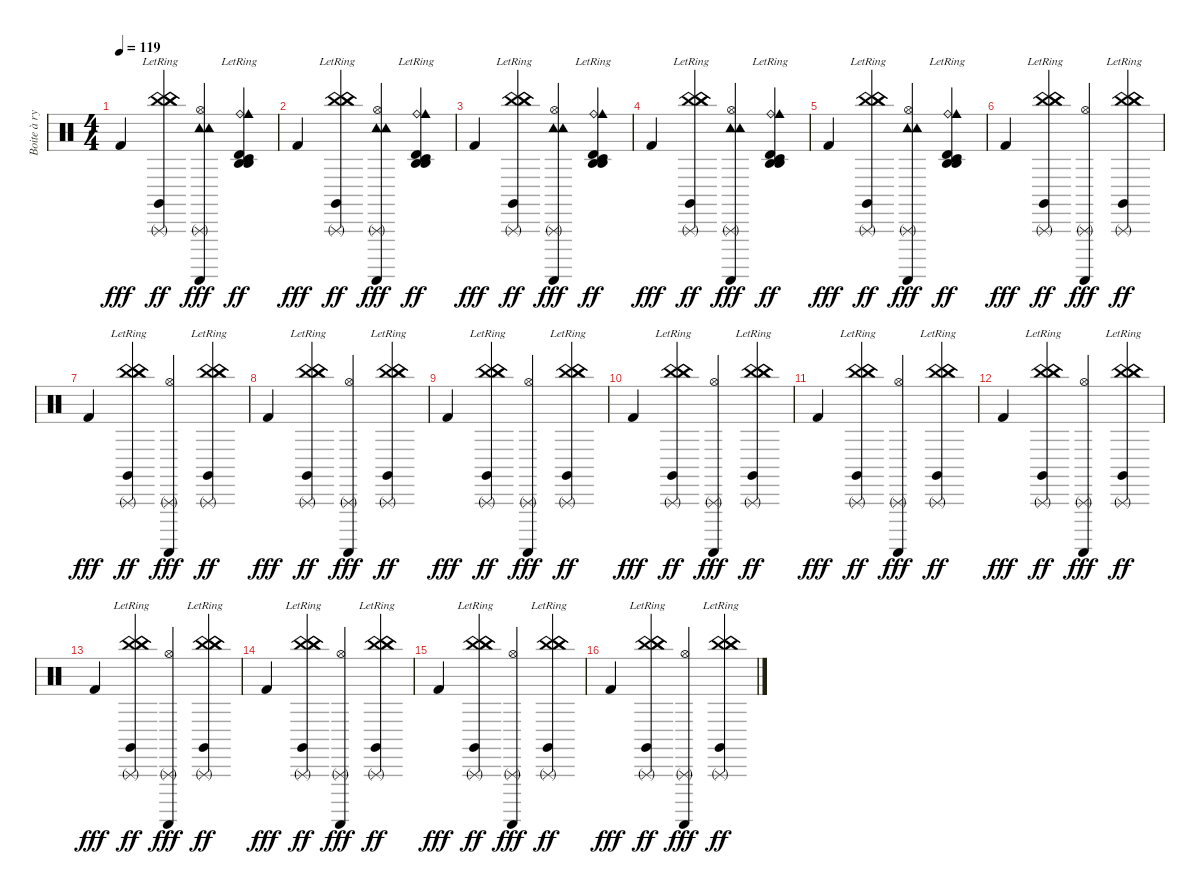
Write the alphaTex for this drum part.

\track ("Boite à rythme" "Boite à ry") {instrument percussion}
\staff {score}
\articulation defaults
\ts (4 4)
\tempo 119
\clef neutral
\ks c "Kick (hit) 2".4{dy fff}
("China (hit)" "China (hit)" "Triangle (rnute)" "Claves (hit)" "China (hit)"{lr}).4{dy ff} ("Hi-Hat (open)" "Tambourine (hit)" "Triangle (rnute)" "Guiro (scrap-return)" "Tambourine (hit)").4{dy fff} ("Ride (bell)" "Agogo high (hit)"{lr} "Timbale high (hit)" "Agogo high (hit)" "Cowbell medium (hit)" "Timbale low (hit)").4{dy ff} |
"Kick (hit) 2".4{dy fff} ("China (hit)" "China (hit)" "Triangle (rnute)" "Claves (hit)" "China (hit)"{lr}).4{dy ff} ("Hi-Hat (open)" "Tambourine (hit)" "Triangle (rnute)" "Guiro (scrap-return)" "Tambourine (hit)").4{dy fff} ("Ride (bell)" "Agogo high (hit)"{lr} "Timbale high (hit)" "Agogo high (hit)" "Cowbell medium (hit)" "Timbale low (hit)").4{dy ff} |
"Kick (hit) 2".4{dy fff} ("China (hit)" "China (hit)" "Triangle (rnute)" "Claves (hit)" "China (hit)"{lr}).4{dy ff} ("Hi-Hat (open)" "Tambourine (hit)" "Triangle (rnute)" "Guiro (scrap-return)" "Tambourine (hit)").4{dy fff} ("Ride (bell)" "Agogo high (hit)"{lr} "Timbale high (hit)" "Agogo high (hit)" "Cowbell medium (hit)" "Timbale low (hit)").4{dy ff} |
"Kick (hit) 2".4{dy fff} ("China (hit)" "China (hit)" "Triangle (rnute)" "Claves (hit)" "China (hit)"{lr}).4{dy ff} ("Hi-Hat (open)" "Tambourine (hit)" "Triangle (rnute)" "Guiro (scrap-return)" "Tambourine (hit)").4{dy fff} ("Ride (bell)" "Agogo high (hit)"{lr} "Timbale high (hit)" "Agogo high (hit)" "Cowbell medium (hit)" "Timbale low (hit)").4{dy ff} |
"Kick (hit) 2".4{dy fff} ("China (hit)" "China (hit)" "Triangle (rnute)" "Claves (hit)" "China (hit)"{lr}).4{dy ff} ("Hi-Hat (open)" "Tambourine (hit)" "Triangle (rnute)" "Guiro (scrap-return)" "Tambourine (hit)").4{dy fff} ("Ride (bell)" "Agogo high (hit)"{lr} "Timbale high (hit)" "Agogo high (hit)" "Cowbell medium (hit)" "Timbale low (hit)").4{dy ff} |
"Kick (hit) 2".4{dy fff volume 11} ("China (hit)" "China (hit)" "Triangle (rnute)" "Claves (hit)" "China (hit)"{lr}).4{dy ff} ("Hi-Hat (open)" "Triangle (rnute)" "Guiro (scrap-return)").4{dy fff} ("China (hit)" "China (hit)"{lr} "Triangle (rnute)" "Claves (hit)" "China (hit)").4{dy ff} |
"Kick (hit) 2".4{dy fff} ("China (hit)" "China (hit)" "Triangle (rnute)" "Claves (hit)" "China (hit)"{lr}).4{dy ff} ("Hi-Hat (open)" "Triangle (rnute)" "Guiro (scrap-return)").4{dy fff} ("China (hit)" "China (hit)"{lr} "Triangle (rnute)" "Claves (hit)" "China (hit)").4{dy ff} |
"Kick (hit) 2".4{dy fff} ("China (hit)" "China (hit)" "Triangle (rnute)" "Claves (hit)" "China (hit)"{lr}).4{dy ff} ("Hi-Hat (open)" "Triangle (rnute)" "Guiro (scrap-return)").4{dy fff} ("China (hit)" "China (hit)"{lr} "Triangle (rnute)" "Claves (hit)" "China (hit)").4{dy ff} |
"Kick (hit) 2".4{dy fff} ("China (hit)" "China (hit)" "Triangle (rnute)" "Claves (hit)" "China (hit)"{lr}).4{dy ff} ("Hi-Hat (open)" "Triangle (rnute)" "Guiro (scrap-return)").4{dy fff} ("China (hit)" "China (hit)"{lr} "Triangle (rnute)" "Claves (hit)" "China (hit)").4{dy ff} |
"Kick (hit) 2".4{dy fff} ("China (hit)" "China (hit)" "Triangle (rnute)" "Claves (hit)" "China (hit)"{lr}).4{dy ff} ("Hi-Hat (open)" "Triangle (rnute)" "Guiro (scrap-return)").4{dy fff} ("China (hit)" "China (hit)"{lr} "Triangle (rnute)" "Claves (hit)" "China (hit)").4{dy ff} |
"Kick (hit) 2".4{dy fff} ("China (hit)" "China (hit)" "Triangle (rnute)" "Claves (hit)" "China (hit)"{lr}).4{dy ff} ("Hi-Hat (open)" "Triangle (rnute)" "Guiro (scrap-return)").4{dy fff} ("China (hit)" "China (hit)"{lr} "Triangle (rnute)" "Claves (hit)" "China (hit)").4{dy ff} |
"Kick (hit) 2".4{dy fff} ("China (hit)" "China (hit)" "Triangle (rnute)" "Claves (hit)" "China (hit)"{lr}).4{dy ff} ("Hi-Hat (open)" "Triangle (rnute)" "Guiro (scrap-return)").4{dy fff} ("China (hit)" "China (hit)"{lr} "Triangle (rnute)" "Claves (hit)" "China (hit)").4{dy ff} |
"Kick (hit) 2".4{dy fff} ("China (hit)" "China (hit)" "Triangle (rnute)" "Claves (hit)" "China (hit)"{lr}).4{dy ff} ("Hi-Hat (open)" "Triangle (rnute)" "Guiro (scrap-return)").4{dy fff} ("China (hit)" "China (hit)"{lr} "Triangle (rnute)" "Claves (hit)" "China (hit)").4{dy ff} |
"Kick (hit) 2".4{dy fff} ("China (hit)" "China (hit)" "Triangle (rnute)" "Claves (hit)" "China (hit)"{lr}).4{dy ff} ("Hi-Hat (open)" "Triangle (rnute)" "Guiro (scrap-return)").4{dy fff} ("China (hit)" "China (hit)"{lr} "Triangle (rnute)" "Claves (hit)" "China (hit)").4{dy ff} |
"Kick (hit) 2".4{dy fff} ("China (hit)" "China (hit)" "Triangle (rnute)" "Claves (hit)" "China (hit)"{lr}).4{dy ff} ("Hi-Hat (open)" "Triangle (rnute)" "Guiro (scrap-return)").4{dy fff} ("China (hit)" "China (hit)"{lr} "Triangle (rnute)" "Claves (hit)" "China (hit)").4{dy ff} |
"Kick (hit) 2".4{dy fff} ("China (hit)" "China (hit)" "Triangle (rnute)" "Claves (hit)" "China (hit)"{lr}).4{dy ff} ("Hi-Hat (open)" "Triangle (rnute)" "Guiro (scrap-return)").4{dy fff} ("China (hit)" "China (hit)"{lr} "Triangle (rnute)" "Claves (hit)" "China (hit)").4{dy ff}
